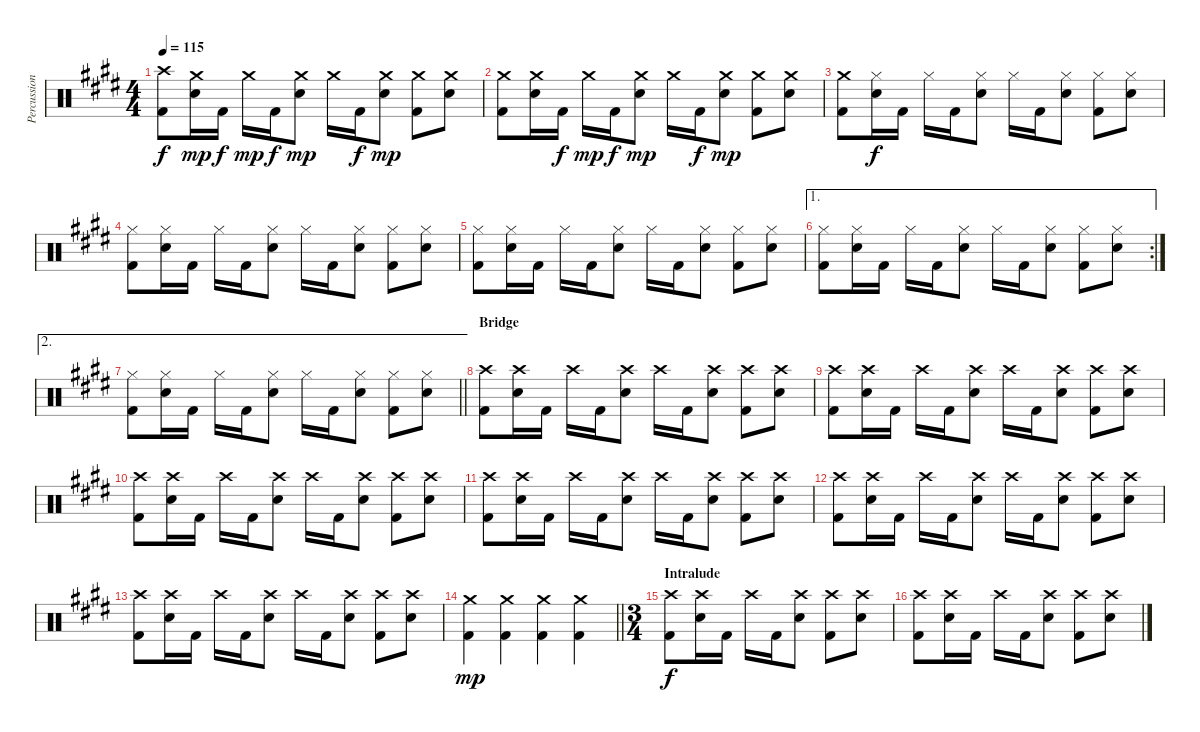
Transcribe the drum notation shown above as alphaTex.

\track ("Percussion" "Percussion") {instrument percussion}
\staff {score}
\articulation defaults
\ts (4 4)
\tempo 115
\clef neutral
\ks e
("Crash high (hit)" "Kick (hit) 2").8{dy f} ("Crash medium (hit)" "Electric Snare (hit)").16{dy mp} "Kick (hit) 2".16{dy f} "Crash medium (hit)".16{dy mp} "Kick (hit) 2".16{dy f} ("Crash medium (hit)" "Electric Snare (hit)").8{dy mp} "Crash medium (hit)".16 "Kick (hit) 2".16{dy f} ("Crash medium (hit)" "Electric Snare (hit)").8{dy mp} ("Crash medium (hit)" "Kick (hit) 2").8 ("Crash medium (hit)" "Electric Snare (hit)").8 |
("Crash medium (hit)" "Kick (hit) 2").8 ("Crash medium (hit)" "Electric Snare (hit)").16 "Kick (hit) 2".16{dy f} "Crash medium (hit)".16{dy mp} "Kick (hit) 2".16{dy f} ("Crash medium (hit)" "Electric Snare (hit)").8{dy mp} "Crash medium (hit)".16 "Kick (hit) 2".16{dy f} ("Crash medium (hit)" "Electric Snare (hit)").8{dy mp} ("Crash medium (hit)" "Kick (hit) 2").8 ("Crash medium (hit)" "Electric Snare (hit)").8 |
("Crash medium (hit)" "Kick (hit) 2").8 ("Hi-Hat (closed)" "Electric Snare (hit)").16{dy f} "Kick (hit) 2".16 "Hi-Hat (closed)".16 "Kick (hit) 2".16 ("Hi-Hat (closed)" "Electric Snare (hit)").8 "Hi-Hat (closed)".16 "Kick (hit) 2".16 ("Hi-Hat (closed)" "Electric Snare (hit)").8 ("Hi-Hat (closed)" "Kick (hit) 2").8 ("Hi-Hat (closed)" "Electric Snare (hit)").8 |
("Hi-Hat (closed)" "Kick (hit) 2").8 ("Hi-Hat (closed)" "Electric Snare (hit)").16 "Kick (hit) 2".16 "Hi-Hat (closed)".16 "Kick (hit) 2".16 ("Hi-Hat (closed)" "Electric Snare (hit)").8 "Hi-Hat (closed)".16 "Kick (hit) 2".16 ("Hi-Hat (closed)" "Electric Snare (hit)").8 ("Hi-Hat (closed)" "Kick (hit) 2").8 ("Hi-Hat (closed)" "Electric Snare (hit)").8 |
("Hi-Hat (closed)" "Kick (hit) 2").8 ("Hi-Hat (closed)" "Electric Snare (hit)").16 "Kick (hit) 2".16 "Hi-Hat (closed)".16 "Kick (hit) 2".16 ("Hi-Hat (closed)" "Electric Snare (hit)").8 "Hi-Hat (closed)".16 "Kick (hit) 2".16 ("Hi-Hat (closed)" "Electric Snare (hit)").8 ("Hi-Hat (closed)" "Kick (hit) 2").8 ("Hi-Hat (closed)" "Electric Snare (hit)").8 |
\ae 1
\rc 2
("Hi-Hat (closed)" "Kick (hit) 2").8 ("Hi-Hat (closed)" "Electric Snare (hit)").16 "Kick (hit) 2".16 "Hi-Hat (closed)".16 "Kick (hit) 2".16 ("Hi-Hat (closed)" "Electric Snare (hit)").8 "Hi-Hat (closed)".16 "Kick (hit) 2".16 ("Hi-Hat (closed)" "Electric Snare (hit)").8 ("Hi-Hat (closed)" "Kick (hit) 2").8 ("Hi-Hat (closed)" "Electric Snare (hit)").8 |
\ae 2
\barLineRight lightlight
("Hi-Hat (closed)" "Kick (hit) 2").8 ("Hi-Hat (closed)" "Electric Snare (hit)").16 "Kick (hit) 2".16 "Hi-Hat (closed)".16 "Kick (hit) 2".16 ("Hi-Hat (closed)" "Electric Snare (hit)").8 "Hi-Hat (closed)".16 "Kick (hit) 2".16 ("Hi-Hat (closed)" "Electric Snare (hit)").8 ("Hi-Hat (closed)" "Kick (hit) 2").8 ("Hi-Hat (closed)" "Electric Snare (hit)").8 |
\section ("" "Bridge")
("Crash high (hit)" "Kick (hit) 2").8 ("Crash high (hit)" "Electric Snare (hit)").16 "Kick (hit) 2".16 "Crash high (hit)".16 "Kick (hit) 2".16 ("Crash high (hit)" "Electric Snare (hit)").8 "Crash high (hit)".16 "Kick (hit) 2".16 ("Crash high (hit)" "Electric Snare (hit)").8 ("Crash high (hit)" "Kick (hit) 2").8 ("Crash high (hit)" "Electric Snare (hit)").8 |
("Crash high (hit)" "Kick (hit) 2").8 ("Crash high (hit)" "Electric Snare (hit)").16 "Kick (hit) 2".16 "Crash high (hit)".16 "Kick (hit) 2".16 ("Crash high (hit)" "Electric Snare (hit)").8 "Crash high (hit)".16 "Kick (hit) 2".16 ("Crash high (hit)" "Electric Snare (hit)").8 ("Crash high (hit)" "Kick (hit) 2").8 ("Crash high (hit)" "Electric Snare (hit)").8 |
("Crash high (hit)" "Kick (hit) 2").8 ("Crash high (hit)" "Electric Snare (hit)").16 "Kick (hit) 2".16 "Crash high (hit)".16 "Kick (hit) 2".16 ("Crash high (hit)" "Electric Snare (hit)").8 "Crash high (hit)".16 "Kick (hit) 2".16 ("Crash high (hit)" "Electric Snare (hit)").8 ("Crash high (hit)" "Kick (hit) 2").8 ("Crash high (hit)" "Electric Snare (hit)").8 |
("Crash high (hit)" "Kick (hit) 2").8 ("Crash high (hit)" "Electric Snare (hit)").16 "Kick (hit) 2".16 "Crash high (hit)".16 "Kick (hit) 2".16 ("Crash high (hit)" "Electric Snare (hit)").8 "Crash high (hit)".16 "Kick (hit) 2".16 ("Crash high (hit)" "Electric Snare (hit)").8 ("Crash high (hit)" "Kick (hit) 2").8 ("Crash high (hit)" "Electric Snare (hit)").8 |
("Crash high (hit)" "Kick (hit) 2").8 ("Crash high (hit)" "Electric Snare (hit)").16 "Kick (hit) 2".16 "Crash high (hit)".16 "Kick (hit) 2".16 ("Crash high (hit)" "Electric Snare (hit)").8 "Crash high (hit)".16 "Kick (hit) 2".16 ("Crash high (hit)" "Electric Snare (hit)").8 ("Crash high (hit)" "Kick (hit) 2").8 ("Crash high (hit)" "Electric Snare (hit)").8 |
("Crash high (hit)" "Kick (hit) 2").8 ("Crash high (hit)" "Electric Snare (hit)").16 "Kick (hit) 2".16 "Crash high (hit)".16 "Kick (hit) 2".16 ("Crash high (hit)" "Electric Snare (hit)").8 "Crash high (hit)".16 "Kick (hit) 2".16 ("Crash high (hit)" "Electric Snare (hit)").8 ("Crash high (hit)" "Kick (hit) 2").8 ("Crash high (hit)" "Electric Snare (hit)").8 |
\barLineRight lightlight
("Crash medium (hit)" "Kick (hit) 2").4{dy mp} ("Crash medium (hit)" "Kick (hit) 2").4 ("Crash medium (hit)" "Kick (hit) 2").4 ("Crash medium (hit)" "Kick (hit) 2").4 |
\ts (3 4)
\section ("" "Intralude")
("Crash high (hit)" "Kick (hit) 2").8{dy f} ("Crash high (hit)" "Electric Snare (hit)").16 "Kick (hit) 2".16 "Crash high (hit)".16 "Kick (hit) 2".16 ("Crash high (hit)" "Electric Snare (hit)").8 ("Crash high (hit)" "Kick (hit) 2").8 ("Crash high (hit)" "Electric Snare (hit)").8 |
("Crash high (hit)" "Kick (hit) 2").8 ("Crash high (hit)" "Electric Snare (hit)").16 "Kick (hit) 2".16 "Crash high (hit)".16 "Kick (hit) 2".16 ("Crash high (hit)" "Electric Snare (hit)").8 ("Crash high (hit)" "Kick (hit) 2").8 ("Crash high (hit)" "Electric Snare (hit)").8
